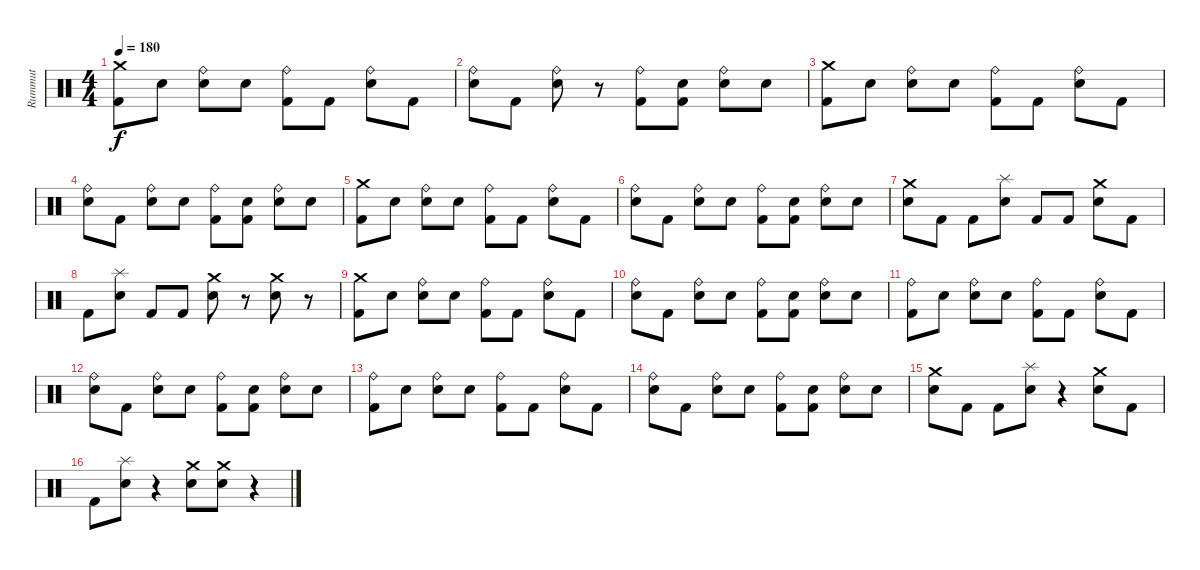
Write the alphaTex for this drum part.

\track ("Rummut" "Rummut") {instrument percussion}
\staff {score}
\articulation defaults
\ts (4 4)
\tempo 180
\clef neutral
\ks c
("Crash medium (hit)" "Kick (hit) 2").8{dy f} "Snare (hit) 2"{x}.8 ("Ride (bell)" "Snare (hit) 2").8 "Snare (hit)"{x}.8 ("Ride (bell)" "Kick (hit) 2").8 "Kick (hit) 2".8 ("Ride (bell)" "Snare (hit) 2").8 "Kick (hit) 2".8 |
("Ride (bell)" "Snare (hit)"{x}).8 "Kick (hit) 2".8 ("Ride (bell)" "Snare (hit) 2").8 r.8 ("Ride (bell)" "Kick (hit) 2").8 ("Snare (hit)"{x} "Kick (hit) 2").8 ("Ride (bell)" "Snare (hit) 2").8 "Snare (hit)"{x}.8 |
("Crash medium (hit)" "Kick (hit) 2").8 "Snare (hit) 2"{x}.8 ("Ride (bell)" "Snare (hit) 2").8 "Snare (hit)"{x}.8 ("Ride (bell)" "Kick (hit) 2").8 "Kick (hit) 2".8 ("Ride (bell)" "Snare (hit) 2").8 "Kick (hit) 2".8 |
("Ride (bell)" "Snare (hit)"{x}).8 "Kick (hit) 2".8 ("Ride (bell)" "Snare (hit) 2").8 "Snare (hit)"{x}.8 ("Ride (bell)" "Kick (hit) 2").8 ("Snare (hit)"{x} "Kick (hit) 2").8 ("Ride (bell)" "Snare (hit) 2").8 "Snare (hit)"{x}.8 |
("Crash medium (hit)" "Kick (hit) 2").8 "Snare (hit) 2"{x}.8 ("Ride (bell)" "Snare (hit) 2").8 "Snare (hit)"{x}.8 ("Ride (bell)" "Kick (hit) 2").8 "Kick (hit) 2".8 ("Ride (bell)" "Snare (hit) 2").8 "Kick (hit) 2".8 |
("Ride (bell)" "Snare (hit)"{x}).8 "Kick (hit) 2".8 ("Ride (bell)" "Snare (hit) 2").8 "Snare (hit)"{x}.8 ("Ride (bell)" "Kick (hit) 2").8 ("Snare (hit)"{x} "Kick (hit) 2").8 ("Ride (bell)" "Snare (hit) 2").8 "Snare (hit)"{x}.8 |
("Crash medium (hit)" "Snare (hit) 2").8 "Kick (hit) 2".8 "Kick (hit) 2".8 ("Splash (hit)" "Snare (hit) 2").8 "Kick (hit) 2".8 "Kick (hit) 2".8 ("Crash medium (hit)" "Snare (hit) 2").8 "Kick (hit) 2".8 |
"Kick (hit) 2".8 ("Splash (hit)" "Snare (hit) 2").8 "Kick (hit) 2".8 "Kick (hit) 2".8 ("Crash medium (hit)" "Snare (hit) 2").8 r.8 ("Crash medium (hit)" "Snare (hit) 2").8 r.8 |
("Crash medium (hit)" "Kick (hit) 2").8 "Snare (hit) 2"{x}.8 ("Ride (bell)" "Snare (hit) 2").8 "Snare (hit)"{x}.8 ("Ride (bell)" "Kick (hit) 2").8 "Kick (hit) 2".8 ("Ride (bell)" "Snare (hit) 2").8 "Kick (hit) 2".8 |
("Ride (bell)" "Snare (hit)"{x}).8 "Kick (hit) 2".8 ("Ride (bell)" "Snare (hit) 2").8 "Snare (hit)"{x}.8 ("Ride (bell)" "Kick (hit) 2").8 ("Snare (hit)"{x} "Kick (hit) 2").8 ("Ride (bell)" "Snare (hit) 2").8 "Snare (hit)"{x}.8 |
("Ride (bell)" "Kick (hit) 2").8 "Snare (hit) 2"{x}.8 ("Ride (bell)" "Snare (hit) 2").8 "Snare (hit)"{x}.8 ("Ride (bell)" "Kick (hit) 2").8 "Kick (hit) 2".8 ("Ride (bell)" "Snare (hit) 2").8 "Kick (hit) 2".8 |
("Ride (bell)" "Snare (hit)"{x}).8 "Kick (hit) 2".8 ("Ride (bell)" "Snare (hit) 2").8 "Snare (hit)"{x}.8 ("Ride (bell)" "Kick (hit) 2").8 ("Snare (hit)"{x} "Kick (hit) 2").8 ("Ride (bell)" "Snare (hit) 2").8 "Snare (hit)"{x}.8 |
("Ride (bell)" "Kick (hit) 2").8 "Snare (hit) 2"{x}.8 ("Ride (bell)" "Snare (hit) 2").8 "Snare (hit)"{x}.8 ("Ride (bell)" "Kick (hit) 2").8 "Kick (hit) 2".8 ("Ride (bell)" "Snare (hit) 2").8 "Kick (hit) 2".8 |
("Ride (bell)" "Snare (hit)"{x}).8 "Kick (hit) 2".8 ("Ride (bell)" "Snare (hit) 2").8 "Snare (hit)"{x}.8 ("Ride (bell)" "Kick (hit) 2").8 ("Snare (hit)"{x} "Kick (hit) 2").8 ("Ride (bell)" "Snare (hit) 2").8 "Snare (hit)"{x}.8 |
("Crash medium (hit)" "Snare (hit) 2").8 "Kick (hit) 2".8 "Kick (hit) 2".8 ("Splash (hit)" "Snare (hit) 2").8 r.4 ("Crash medium (hit)" "Snare (hit) 2").8 "Kick (hit) 2".8 |
"Kick (hit) 2".8 ("Splash (hit)" "Snare (hit) 2").8 r.4 ("Crash medium (hit)" "Snare (hit) 2").8 ("Crash medium (hit)" "Snare (hit) 2").8 r.4
